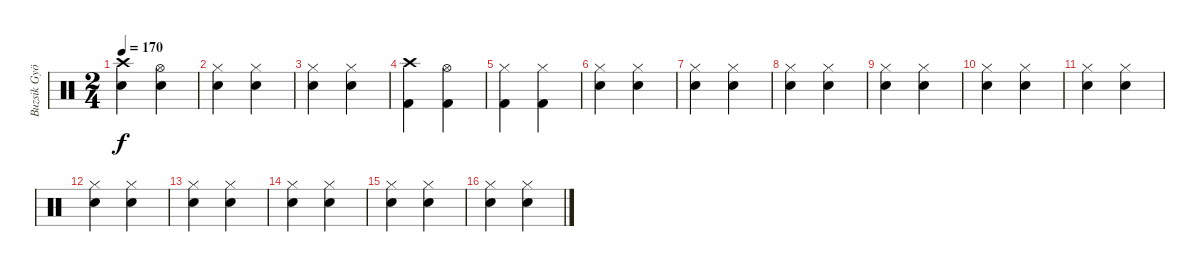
\track ("Buzsik György (dob)" "Buzsik Gyö") {instrument percussion}
\staff {score}
\articulation defaults
\ts (2 4)
\tempo 170
\clef neutral
\ks c
("Crash high (hit)" "Snare (hit) 2").4{dy f} ("Hi-Hat (open)" "Snare (hit) 2").4 |
("Hi-Hat (closed)" "Snare (hit) 2").4 ("Hi-Hat (closed)" "Snare (hit) 2").4 |
("Hi-Hat (closed)" "Snare (hit) 2").4 ("Hi-Hat (closed)" "Snare (hit) 2").4 |
("Crash high (hit)" "Kick (hit) 2").4 ("Hi-Hat (open)" "Kick (hit) 2").4 |
("Hi-Hat (closed)" "Kick (hit) 2").4 ("Hi-Hat (closed)" "Kick (hit) 2").4 |
("Hi-Hat (closed)" "Snare (hit) 2").4 ("Hi-Hat (closed)" "Snare (hit) 2").4 |
("Hi-Hat (closed)" "Snare (hit) 2").4 ("Hi-Hat (closed)" "Snare (hit) 2").4 |
("Hi-Hat (closed)" "Snare (hit) 2").4 ("Hi-Hat (closed)" "Snare (hit) 2").4 |
("Hi-Hat (closed)" "Snare (hit) 2").4 ("Hi-Hat (closed)" "Snare (hit) 2").4 |
("Hi-Hat (closed)" "Snare (hit) 2").4 ("Hi-Hat (closed)" "Snare (hit) 2").4 |
("Hi-Hat (closed)" "Snare (hit) 2").4 ("Hi-Hat (closed)" "Snare (hit) 2").4 |
("Hi-Hat (closed)" "Snare (hit) 2").4 ("Hi-Hat (closed)" "Snare (hit) 2").4 |
("Hi-Hat (closed)" "Snare (hit) 2").4 ("Hi-Hat (closed)" "Snare (hit) 2").4 |
("Hi-Hat (closed)" "Snare (hit) 2").4 ("Hi-Hat (closed)" "Snare (hit) 2").4 |
("Hi-Hat (closed)" "Snare (hit) 2").4 ("Hi-Hat (closed)" "Snare (hit) 2").4 |
("Hi-Hat (closed)" "Snare (hit) 2").4 ("Hi-Hat (closed)" "Snare (hit) 2").4
